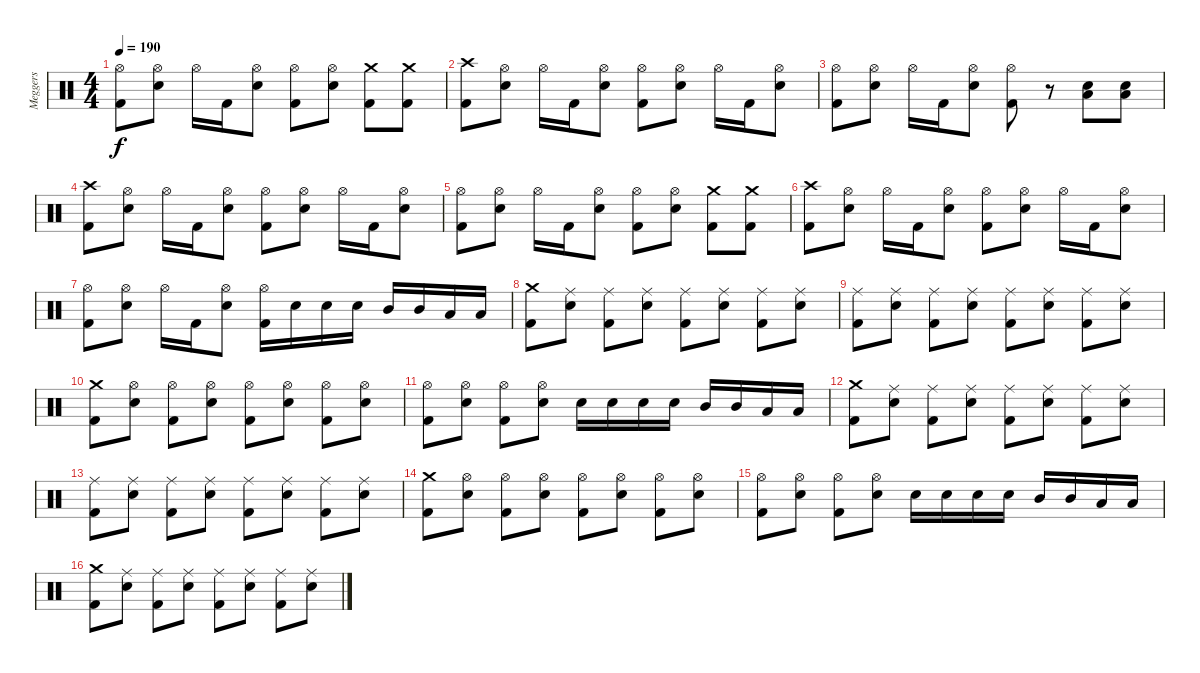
\track ("Meggers" "Meggers") {instrument percussion}
\staff {score}
\articulation defaults
\ts (4 4)
\tempo 190
\clef neutral
\ks c
("Hi-Hat (open)" "Kick (hit) 2").8{dy f} ("Hi-Hat (open)" "Electric Snare (hit)").8 "Hi-Hat (open)".16 "Kick (hit) 2".16 ("Hi-Hat (open)" "Electric Snare (hit)").8 ("Hi-Hat (open)" "Kick (hit) 2").8 ("Hi-Hat (open)" "Electric Snare (hit)").8 ("Crash medium (hit)" "Kick (hit) 2").8 ("Crash medium (hit)" "Kick (hit) 2").8 |
("Crash high (hit)" "Kick (hit) 2").8 ("Hi-Hat (open)" "Electric Snare (hit)").8 "Hi-Hat (open)".16 "Kick (hit) 2".16 ("Hi-Hat (open)" "Electric Snare (hit)").8 ("Hi-Hat (open)" "Kick (hit) 2").8 ("Hi-Hat (open)" "Electric Snare (hit)").8 "Hi-Hat (open)".16 "Kick (hit) 2".16 ("Hi-Hat (open)" "Electric Snare (hit)").8 |
("Hi-Hat (open)" "Kick (hit) 2").8 ("Hi-Hat (open)" "Electric Snare (hit)").8 "Hi-Hat (open)".16 "Kick (hit) 2".16 ("Hi-Hat (open)" "Electric Snare (hit)").8 ("Hi-Hat (open)" "Kick (hit) 2").8 r.8 ("Low Floor Tom (hit)" "Electric Snare (hit)").8 ("Low Floor Tom (hit)" "Electric Snare (hit)").8 |
("Crash high (hit)" "Kick (hit) 2").8 ("Hi-Hat (open)" "Electric Snare (hit)").8 "Hi-Hat (open)".16 "Kick (hit) 2".16 ("Hi-Hat (open)" "Electric Snare (hit)").8 ("Hi-Hat (open)" "Kick (hit) 2").8 ("Hi-Hat (open)" "Electric Snare (hit)").8 "Hi-Hat (open)".16 "Kick (hit) 2".16 ("Hi-Hat (open)" "Electric Snare (hit)").8 |
("Hi-Hat (open)" "Kick (hit) 2").8 ("Hi-Hat (open)" "Electric Snare (hit)").8 "Hi-Hat (open)".16 "Kick (hit) 2".16 ("Hi-Hat (open)" "Electric Snare (hit)").8 ("Hi-Hat (open)" "Kick (hit) 2").8 ("Hi-Hat (open)" "Electric Snare (hit)").8 ("Crash medium (hit)" "Kick (hit) 2").8 ("Crash medium (hit)" "Kick (hit) 2").8 |
("Crash high (hit)" "Kick (hit) 2").8 ("Hi-Hat (open)" "Electric Snare (hit)").8 "Hi-Hat (open)".16 "Kick (hit) 2".16 ("Hi-Hat (open)" "Electric Snare (hit)").8 ("Hi-Hat (open)" "Kick (hit) 2").8 ("Hi-Hat (open)" "Electric Snare (hit)").8 "Hi-Hat (open)".16 "Kick (hit) 2".16 ("Hi-Hat (open)" "Electric Snare (hit)").8 |
("Hi-Hat (open)" "Kick (hit) 2").8 ("Hi-Hat (open)" "Electric Snare (hit)").8 "Hi-Hat (open)".16 "Kick (hit) 2".16 ("Hi-Hat (open)" "Electric Snare (hit)").8 ("Hi-Hat (open)" "Kick (hit) 2").16 "Electric Snare (hit)".16 "Electric Snare (hit)".16 "Electric Snare (hit)".16 "Mid Tom (hit)".16 "Mid Tom (hit)".16 "Low Tom (hit)".16 "Low Tom (hit)".16 |
("Crash medium (hit)" "Kick (hit) 2").8 ("Ride (middle)" "Electric Snare (hit)").8 ("Ride (middle)" "Kick (hit) 2").8 ("Ride (middle)" "Electric Snare (hit)").8 ("Ride (middle)" "Kick (hit) 2").8 ("Ride (middle)" "Electric Snare (hit)").8 ("Ride (middle)" "Kick (hit) 2").8 ("Ride (middle)" "Electric Snare (hit)").8 |
("Ride (middle)" "Kick (hit) 2").8 ("Ride (middle)" "Electric Snare (hit)").8 ("Ride (middle)" "Kick (hit) 2").8 ("Ride (middle)" "Electric Snare (hit)").8 ("Ride (middle)" "Kick (hit) 2").8 ("Ride (middle)" "Electric Snare (hit)").8 ("Ride (middle)" "Kick (hit) 2").8 ("Ride (middle)" "Electric Snare (hit)").8 |
("Crash medium (hit)" "Kick (hit) 2").8 ("Hi-Hat (open)" "Electric Snare (hit)").8 ("Hi-Hat (open)" "Kick (hit) 2").8 ("Hi-Hat (open)" "Electric Snare (hit)").8 ("Hi-Hat (open)" "Kick (hit) 2").8 ("Hi-Hat (open)" "Electric Snare (hit)").8 ("Hi-Hat (open)" "Kick (hit) 2").8 ("Hi-Hat (open)" "Electric Snare (hit)").8 |
("Hi-Hat (open)" "Kick (hit) 2").8 ("Hi-Hat (open)" "Electric Snare (hit)").8 ("Hi-Hat (open)" "Kick (hit) 2").8 ("Hi-Hat (open)" "Electric Snare (hit)").8 "Electric Snare (hit)".16 "Electric Snare (hit)".16 "Electric Snare (hit)".16 "Electric Snare (hit)".16 "Mid Tom (hit)".16 "Mid Tom (hit)".16 "Low Tom (hit)".16 "Low Tom (hit)".16 |
("Crash medium (hit)" "Kick (hit) 2").8 ("Ride (middle)" "Electric Snare (hit)").8 ("Ride (middle)" "Kick (hit) 2").8 ("Ride (middle)" "Electric Snare (hit)").8 ("Ride (middle)" "Kick (hit) 2").8 ("Ride (middle)" "Electric Snare (hit)").8 ("Ride (middle)" "Kick (hit) 2").8 ("Ride (middle)" "Electric Snare (hit)").8 |
("Ride (middle)" "Kick (hit) 2").8 ("Ride (middle)" "Electric Snare (hit)").8 ("Ride (middle)" "Kick (hit) 2").8 ("Ride (middle)" "Electric Snare (hit)").8 ("Ride (middle)" "Kick (hit) 2").8 ("Ride (middle)" "Electric Snare (hit)").8 ("Ride (middle)" "Kick (hit) 2").8 ("Ride (middle)" "Electric Snare (hit)").8 |
("Crash medium (hit)" "Kick (hit) 2").8 ("Hi-Hat (open)" "Electric Snare (hit)").8 ("Hi-Hat (open)" "Kick (hit) 2").8 ("Hi-Hat (open)" "Electric Snare (hit)").8 ("Hi-Hat (open)" "Kick (hit) 2").8 ("Hi-Hat (open)" "Electric Snare (hit)").8 ("Hi-Hat (open)" "Kick (hit) 2").8 ("Hi-Hat (open)" "Electric Snare (hit)").8 |
("Hi-Hat (open)" "Kick (hit) 2").8 ("Hi-Hat (open)" "Electric Snare (hit)").8 ("Hi-Hat (open)" "Kick (hit) 2").8 ("Hi-Hat (open)" "Electric Snare (hit)").8 "Electric Snare (hit)".16 "Electric Snare (hit)".16 "Electric Snare (hit)".16 "Electric Snare (hit)".16 "Mid Tom (hit)".16 "Mid Tom (hit)".16 "Low Tom (hit)".16 "Low Tom (hit)".16 |
("Crash medium (hit)" "Kick (hit) 2").8 ("Ride (middle)" "Electric Snare (hit)").8 ("Ride (middle)" "Kick (hit) 2").8 ("Ride (middle)" "Electric Snare (hit)").8 ("Ride (middle)" "Kick (hit) 2").8 ("Ride (middle)" "Electric Snare (hit)").8 ("Ride (middle)" "Kick (hit) 2").8 ("Ride (middle)" "Electric Snare (hit)").8
